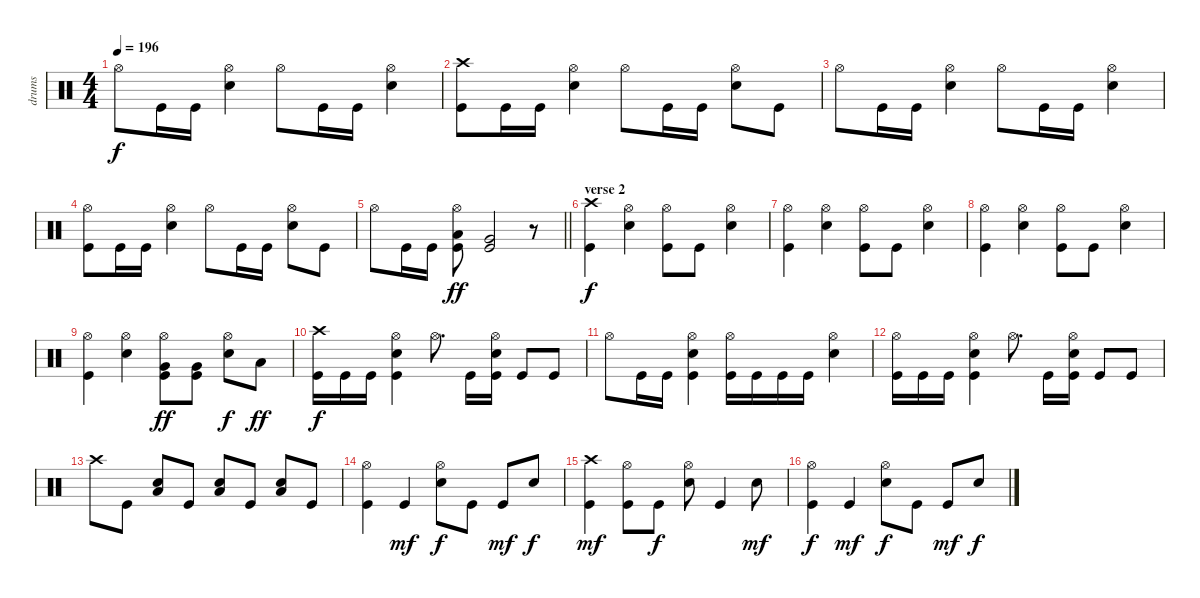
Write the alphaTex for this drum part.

\track ("drums" "drums") {instrument percussion}
\staff {score}
\articulation defaults
\ts (4 4)
\tempo 196
\clef neutral
\ks c "Hi-Hat (open)".8{dy f} "Kick (hit)".16 "Kick (hit)".16
("Hi-Hat (open)" "Electric Snare (hit)").4 "Hi-Hat (open)".8 "Kick (hit)".16 "Kick (hit)".16 ("Hi-Hat (open)" "Electric Snare (hit)").4 |
("Crash high (hit)" "Kick (hit)").8 "Kick (hit)".16 "Kick (hit)".16 ("Hi-Hat (open)" "Electric Snare (hit)").4 "Hi-Hat (open)".8 "Kick (hit)".16 "Kick (hit)".16 ("Hi-Hat (open)" "Electric Snare (hit)").8 "Kick (hit)".8 |
"Hi-Hat (open)".8 "Kick (hit)".16 "Kick (hit)".16 ("Hi-Hat (open)" "Electric Snare (hit)").4 "Hi-Hat (open)".8 "Kick (hit)".16 "Kick (hit)".16 ("Hi-Hat (open)" "Electric Snare (hit)").4 |
("Hi-Hat (open)" "Kick (hit)").8 "Kick (hit)".16 "Kick (hit)".16 ("Hi-Hat (open)" "Electric Snare (hit)").4 "Hi-Hat (open)".8 "Kick (hit)".16 "Kick (hit)".16 ("Hi-Hat (open)" "Electric Snare (hit)").8 "Kick (hit)".8 |
\barLineRight lightlight "Hi-Hat (open)".8 "Kick (hit)".16 "Kick (hit)".16
("Hi-Hat (open)" "Low Floor Tom (hit)" "Kick (hit)").8{dy ff} ("Very Low Tom (hit)" "Kick (hit)").2 r.8 |
\section ("" "verse 2")
("Crash high (hit)" "Kick (hit)").4{dy f} ("Hi-Hat (open)" "Electric Snare (hit)").4 ("Hi-Hat (open)" "Kick (hit)").8 "Kick (hit)".8 ("Hi-Hat (open)" "Electric Snare (hit)").4 |
("Hi-Hat (open)" "Kick (hit)").4 ("Hi-Hat (open)" "Electric Snare (hit)").4 ("Hi-Hat (open)" "Kick (hit)").8 "Kick (hit)".8 ("Hi-Hat (open)" "Electric Snare (hit)").4 |
("Hi-Hat (open)" "Kick (hit)").4 ("Hi-Hat (open)" "Electric Snare (hit)").4 ("Hi-Hat (open)" "Kick (hit)").8 "Kick (hit)".8 ("Hi-Hat (open)" "Electric Snare (hit)").4 |
("Hi-Hat (open)" "Kick (hit)").4 ("Hi-Hat (open)" "Electric Snare (hit)").4 ("Hi-Hat (open)" "Very Low Tom (hit)" "Kick (hit)").8{dy ff} ("Very Low Tom (hit)" "Kick (hit)").8 ("Hi-Hat (open)" "Electric Snare (hit)").8{dy f} "Low Floor Tom (hit)".8{dy ff} |
("Crash high (hit)" "Kick (hit)").16{dy f} "Kick (hit)".16 "Kick (hit)".16 ("Hi-Hat (open)" "Electric Snare (hit)" "Kick (hit)").4 "Hi-Hat (open)".8{d} "Kick (hit)".16 ("Hi-Hat (open)" "Electric Snare (hit)" "Kick (hit)").16 "Kick (hit)".8 "Kick (hit)".8 |
"Hi-Hat (open)".8 "Kick (hit)".16 "Kick (hit)".16 ("Hi-Hat (open)" "Electric Snare (hit)" "Kick (hit)").4 ("Hi-Hat (open)" "Kick (hit)").16 "Kick (hit)".16 "Kick (hit)".16 "Kick (hit)".16 ("Hi-Hat (open)" "Electric Snare (hit)").4 |
("Hi-Hat (open)" "Kick (hit)").16 "Kick (hit)".16 "Kick (hit)".16 ("Hi-Hat (open)" "Electric Snare (hit)" "Kick (hit)").4 "Hi-Hat (open)".8{d} "Kick (hit)".16 ("Hi-Hat (open)" "Electric Snare (hit)" "Kick (hit)").16 "Kick (hit)".8 "Kick (hit)".8 |
"Crash high (hit)".8 "Kick (hit)".8 ("Electric Snare (hit)" "Low Tom (hit)").8 "Kick (hit)".8 ("Electric Snare (hit)" "Low Floor Tom (hit)").8 "Kick (hit)".8 ("Electric Snare (hit)" "Low Floor Tom (hit)").8 "Kick (hit)".8 |
("Hi-Hat (open)" "Kick (hit)").4 "Kick (hit)".4{dy mf} ("Hi-Hat (open)" "Electric Snare (hit)").8{dy f} "Kick (hit)".8 "Kick (hit)".8{dy mf} "Electric Snare (hit)".8{dy f} |
("Crash high (hit)" "Kick (hit)").4{dy mf} ("Hi-Hat (open)" "Kick (hit)").8 "Kick (hit)".8{dy f} ("Hi-Hat (open)" "Electric Snare (hit)").8 "Kick (hit)".4 "Electric Snare (hit)".8{dy mf} |
("Hi-Hat (open)" "Kick (hit)").4{dy f} "Kick (hit)".4{dy mf} ("Hi-Hat (open)" "Electric Snare (hit)").8{dy f} "Kick (hit)".8 "Kick (hit)".8{dy mf} "Electric Snare (hit)".8{dy f}
